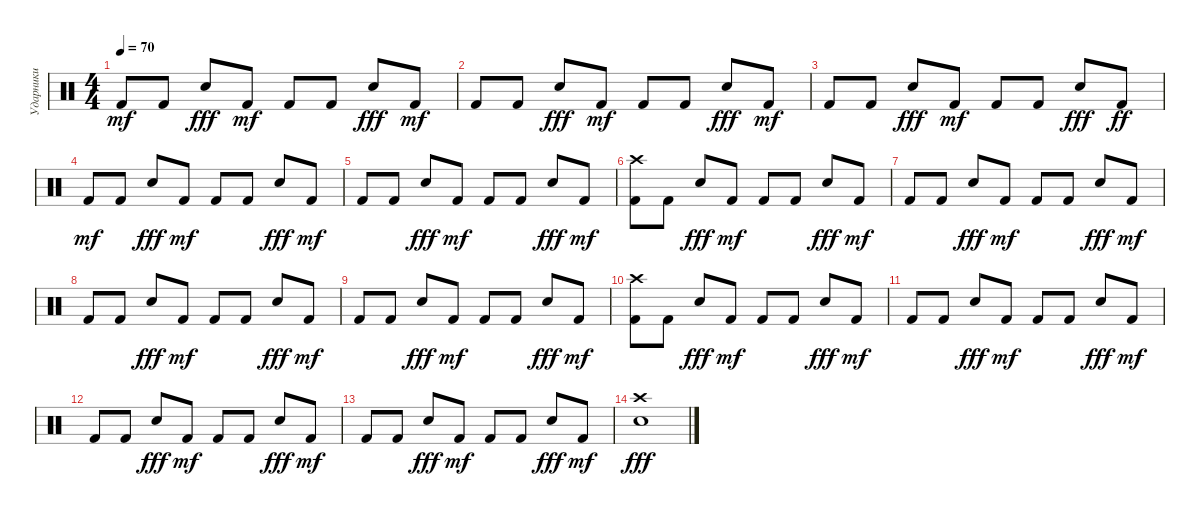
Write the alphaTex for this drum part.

\track ("Ударники" "Ударники") {instrument percussion}
\staff {score}
\articulation defaults
\ts (4 4)
\tempo 70
\clef neutral
\ks c "Kick (hit) 2".8{dy mf} "Kick (hit) 2".8 "Snare (hit) 2".8{dy fff} "Kick (hit) 2".8{dy mf} "Kick (hit) 2".8 "Kick (hit) 2".8 "Snare (hit) 2".8{dy fff} "Kick (hit) 2".8{dy mf}
|
"Kick (hit) 2".8 "Kick (hit) 2".8 "Snare (hit) 2".8{dy fff} "Kick (hit) 2".8{dy mf} "Kick (hit) 2".8 "Kick (hit) 2".8 "Snare (hit) 2".8{dy fff} "Kick (hit) 2".8{dy mf} |
"Kick (hit) 2".8 "Kick (hit) 2".8 "Snare (hit) 2".8{dy fff} "Kick (hit) 2".8{dy mf} "Kick (hit) 2".8 "Kick (hit) 2".8 "Snare (hit) 2".8{dy fff} "Kick (hit) 2".8{dy ff} |
"Kick (hit) 2".8{dy mf} "Kick (hit) 2".8 "Snare (hit) 2".8{dy fff} "Kick (hit) 2".8{dy mf} "Kick (hit) 2".8 "Kick (hit) 2".8 "Snare (hit) 2".8{dy fff} "Kick (hit) 2".8{dy mf} |
"Kick (hit) 2".8 "Kick (hit) 2".8 "Snare (hit) 2".8{dy fff} "Kick (hit) 2".8{dy mf} "Kick (hit) 2".8 "Kick (hit) 2".8 "Snare (hit) 2".8{dy fff} "Kick (hit) 2".8{dy mf} |
("Crash high (hit)" "Kick (hit) 2").8 "Kick (hit) 2".8 "Snare (hit) 2".8{dy fff} "Kick (hit) 2".8{dy mf} "Kick (hit) 2".8 "Kick (hit) 2".8 "Snare (hit) 2".8{dy fff} "Kick (hit) 2".8{dy mf} |
"Kick (hit) 2".8 "Kick (hit) 2".8 "Snare (hit) 2".8{dy fff} "Kick (hit) 2".8{dy mf} "Kick (hit) 2".8 "Kick (hit) 2".8 "Snare (hit) 2".8{dy fff} "Kick (hit) 2".8{dy mf} |
"Kick (hit) 2".8 "Kick (hit) 2".8 "Snare (hit) 2".8{dy fff} "Kick (hit) 2".8{dy mf} "Kick (hit) 2".8 "Kick (hit) 2".8 "Snare (hit) 2".8{dy fff} "Kick (hit) 2".8{dy mf} |
"Kick (hit) 2".8 "Kick (hit) 2".8 "Snare (hit) 2".8{dy fff} "Kick (hit) 2".8{dy mf} "Kick (hit) 2".8 "Kick (hit) 2".8 "Snare (hit) 2".8{dy fff} "Kick (hit) 2".8{dy mf} |
("Crash high (hit)" "Kick (hit) 2").8 "Kick (hit) 2".8 "Snare (hit) 2".8{dy fff} "Kick (hit) 2".8{dy mf} "Kick (hit) 2".8 "Kick (hit) 2".8 "Snare (hit) 2".8{dy fff} "Kick (hit) 2".8{dy mf} |
"Kick (hit) 2".8 "Kick (hit) 2".8 "Snare (hit) 2".8{dy fff} "Kick (hit) 2".8{dy mf} "Kick (hit) 2".8 "Kick (hit) 2".8 "Snare (hit) 2".8{dy fff} "Kick (hit) 2".8{dy mf} |
"Kick (hit) 2".8 "Kick (hit) 2".8 "Snare (hit) 2".8{dy fff} "Kick (hit) 2".8{dy mf} "Kick (hit) 2".8 "Kick (hit) 2".8 "Snare (hit) 2".8{dy fff} "Kick (hit) 2".8{dy mf} |
"Kick (hit) 2".8 "Kick (hit) 2".8 "Snare (hit) 2".8{dy fff} "Kick (hit) 2".8{dy mf} "Kick (hit) 2".8 "Kick (hit) 2".8 "Snare (hit) 2".8{dy fff} "Kick (hit) 2".8{dy mf} |
("Snare (hit) 2" "Crash high (hit)").1{dy fff}
